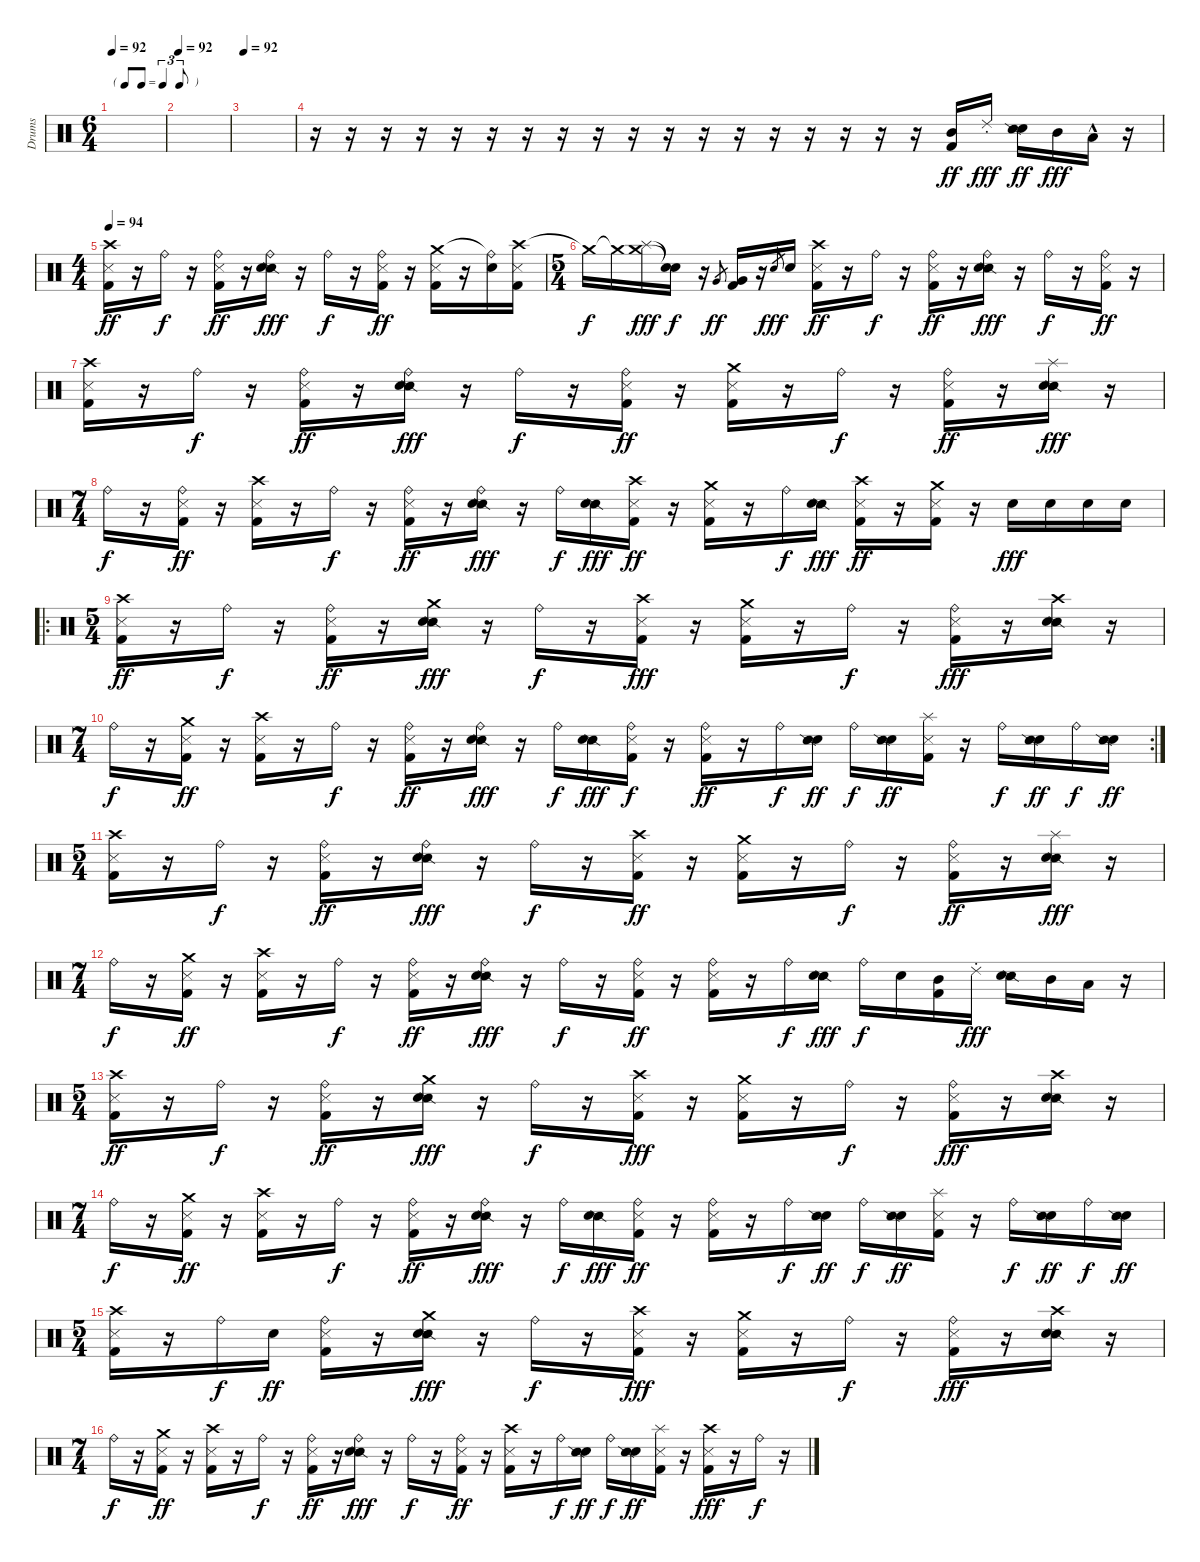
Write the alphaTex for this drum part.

\track ("Drums" "Drums") {instrument percussion}
\staff {score}
\articulation defaults
\ts (6 4)
\tf triplet8th
\tempo 92
\clef neutral
\ks c
|
\tempo 92
|
\tempo 92
|
r.16 r.16 r.16 r.16 r.16 r.16 r.16 r.16 r.16 r.16 r.16 r.16 r.16 r.16 r.16 r.16 r.16 r.16 ("Mid Tom (hit)" "Kick (hit) 2").16{dy ff} "Ride (choke) 2".16{dy fff} ("Electric Snare (hit)" "Snare (side stick) 2").16{dy ff} "Mid Tom (hit)".16{dy fff} "Low Tom (hit)"{hac}.16 r.16 |
\ts (4 4)
\tempo 94
("Crash high (hit)" "Metronome (hit)" "Kick (hit) 2").16{dy ff} r.16 "Ride (bell)".16{dy f} r.16 ("Ride (bell)" "Metronome (hit)" "Kick (hit) 2").16{dy ff} r.16 ("Ride (bell)" "Snare (side stick) 2" "Electric Snare (hit)").16{dy fff} r.16 "Ride (bell)".16{dy f} r.16 ("Ride (bell)" "Metronome (hit)" "Kick (hit) 2").16{dy ff} r.16 ("Crash medium (hit)" "Metronome (hit)" "Kick (hit) 2").16 r.16 ("Ride (bell)"{t} "Electric Snare (hit)").16 ("Crash high (hit)" "Metronome (hit)" "Kick (hit) 2").16 |
\ts (5 4)
"Crash medium (hit)"{t}.16{dy f} "Crash medium (hit)"{t}.16 ("Crash medium (hit)" "Splash (hit)").16{dy fff} ("Snare (hit)"{t} "Snare (hit)"{t}).16{dy f} r.16 "Very Low Tom (hit)".8{gr dy ff} ("Very Low Tom (hit)" "Kick (hit) 2").16 r.16 "Electric Snare (hit)".8{gr dy fff} "Electric Snare (hit)".16 ("Crash high (hit)" "Metronome (hit)" "Kick (hit) 2").16{dy ff} r.16 "Ride (bell)".16{dy f} r.16 ("Ride (bell)" "Metronome (hit)" "Kick (hit) 2").16{dy ff} r.16 ("Ride (bell)" "Snare (side stick) 2" "Electric Snare (hit)").16{dy fff} r.16 "Ride (bell)".16{dy f} r.16 ("Ride (bell)" "Metronome (hit)" "Kick (hit) 2").16{dy ff} r.16 |
("Crash high (hit)" "Metronome (hit)" "Kick (hit) 2").16 r.16 "Ride (bell)".16{dy f} r.16 ("Ride (bell)" "Metronome (hit)" "Kick (hit) 2").16{dy ff} r.16 ("Ride (bell)" "Snare (side stick) 2" "Electric Snare (hit)").16{dy fff} r.16 "Ride (bell)".16{dy f} r.16 ("Ride (bell)" "Metronome (hit)" "Kick (hit) 2").16{dy ff} r.16 ("Crash medium (hit)" "Metronome (hit)" "Kick (hit) 2").16 r.16 "Ride (bell)".16{dy f} r.16 ("Ride (bell)" "Metronome (hit)" "Kick (hit) 2").16{dy ff} r.16 ("Splash (hit)" "Snare (side stick) 2" "Electric Snare (hit)").16{dy fff} r.16 |
\ts (7 4)
"Ride (bell)".16{dy f} r.16 ("Ride (bell)" "Metronome (hit)" "Kick (hit) 2").16{dy ff} r.16 ("Crash high (hit)" "Metronome (hit)" "Kick (hit) 2").16 r.16 "Ride (bell)".16{dy f} r.16 ("Ride (bell)" "Metronome (hit)" "Kick (hit) 2").16{dy ff} r.16 ("Ride (bell)" "Snare (side stick) 2" "Electric Snare (hit)").16{dy fff} r.16 "Ride (bell)".16{dy f} ("Snare (side stick) 2" "Electric Snare (hit)").16{dy fff} ("Crash high (hit)" "Metronome (hit)" "Kick (hit) 2").16{dy ff} r.16 ("Crash medium (hit)" "Metronome (hit)" "Kick (hit) 2").16 r.16 "Ride (bell)".16{dy f} ("Snare (side stick) 2" "Electric Snare (hit)").16{dy fff} ("Crash high (hit)" "Metronome (hit)" "Kick (hit) 2").16{dy ff} r.16 ("Crash medium (hit)" "Metronome (hit)" "Kick (hit) 2").16 r.16 "Electric Snare (hit)".16{dy fff} "Electric Snare (hit)".16 "Electric Snare (hit)".16 "Electric Snare (hit)".16 |
\ro
\ts (5 4)
("Crash high (hit)" "Metronome (hit)" "Kick (hit) 2").16{dy ff} r.16 "Ride (bell)".16{dy f} r.16 ("Ride (bell)" "Metronome (hit)" "Kick (hit) 2").16{dy ff} r.16 ("Crash medium (hit)" "Snare (side stick) 2" "Electric Snare (hit)").16{dy fff} r.16 "Ride (bell)".16{dy f} r.16 ("Crash high (hit)" "Metronome (hit)" "Kick (hit) 2").16{dy fff} r.16 ("Crash medium (hit)" "Metronome (hit)" "Kick (hit) 2").16 r.16 "Ride (bell)".16{dy f} r.16 ("Ride (bell)" "Metronome (hit)" "Kick (hit) 2").16{dy fff} r.16 ("Crash high (hit)" "Snare (side stick) 2" "Electric Snare (hit)").16 r.16 |
\rc 2
\ts (7 4)
"Ride (bell)".16{dy f} r.16 ("Crash medium (hit)" "Metronome (hit)" "Kick (hit) 2").16{dy ff} r.16 ("Crash high (hit)" "Metronome (hit)" "Kick (hit) 2").16 r.16 "Ride (bell)".16{dy f} r.16 ("Ride (bell)" "Metronome (hit)" "Kick (hit) 2").16{dy ff} r.16 ("Ride (bell)" "Snare (side stick) 2" "Electric Snare (hit)").16{dy fff} r.16 "Ride (bell)".16{dy f} ("Snare (side stick) 2" "Electric Snare (hit)").16{dy fff} ("Ride (bell)" "Metronome (hit)" "Kick (hit) 2").16{dy f} r.16 ("Ride (bell)" "Metronome (hit)" "Kick (hit) 2").16{dy ff} r.16 "Ride (bell)".16{dy f} ("Electric Snare (hit)" "Snare (side stick) 2").16{dy ff} "Ride (bell)".16{dy f} ("Electric Snare (hit)" "Snare (side stick) 2").16{dy ff} ("Splash (hit)" "Metronome (hit)" "Kick (hit) 2").16 r.16 "Ride (bell)".16{dy f} ("Electric Snare (hit)" "Snare (side stick) 2").16{dy ff} "Ride (bell)".16{dy f} ("Electric Snare (hit)" "Snare (side stick) 2").16{dy ff} |
\ts (5 4)
("Crash high (hit)" "Metronome (hit)" "Kick (hit) 2").16 r.16 "Ride (bell)".16{dy f} r.16 ("Ride (bell)" "Metronome (hit)" "Kick (hit) 2").16{dy ff} r.16 ("Ride (bell)" "Snare (side stick) 2" "Electric Snare (hit)").16{dy fff} r.16 "Ride (bell)".16{dy f} r.16 ("Crash high (hit)" "Metronome (hit)" "Kick (hit) 2").16{dy ff} r.16 ("Crash medium (hit)" "Metronome (hit)" "Kick (hit) 2").16 r.16 "Ride (bell)".16{dy f} r.16 ("Ride (bell)" "Metronome (hit)" "Kick (hit) 2").16{dy ff} r.16 ("Splash (hit)" "Snare (side stick) 2" "Electric Snare (hit)").16{dy fff} r.16 |
\ts (7 4)
"Ride (bell)".16{dy f} r.16 ("Crash medium (hit)" "Metronome (hit)" "Kick (hit) 2").16{dy ff} r.16 ("Crash high (hit)" "Metronome (hit)" "Kick (hit) 2").16 r.16 "Ride (bell)".16{dy f} r.16 ("Ride (bell)" "Metronome (hit)" "Kick (hit) 2").16{dy ff} r.16 ("Ride (bell)" "Snare (side stick) 2" "Electric Snare (hit)").16{dy fff} r.16 "Ride (bell)".16{dy f} r.16 ("Ride (bell)" "Metronome (hit)" "Kick (hit) 2").16{dy ff} r.16 ("Ride (bell)" "Metronome (hit)" "Kick (hit) 2").16 r.16 "Ride (bell)".16{dy f} ("Snare (side stick) 2" "Electric Snare (hit)").16{dy fff} "Ride (bell)".16{dy f} "Electric Snare (hit)".16 ("Mid Tom (hit)" "Kick (hit) 2").16 "Ride (choke) 2".16{dy fff} ("Snare (side stick) 2" "Electric Snare (hit)").16 "Mid Tom (hit)".16 "Low Tom (hit)".16 r.16 |
\ts (5 4)
("Crash high (hit)" "Metronome (hit)" "Kick (hit) 2").16{dy ff} r.16 "Ride (bell)".16{dy f} r.16 ("Ride (bell)" "Metronome (hit)" "Kick (hit) 2").16{dy ff} r.16 ("Crash medium (hit)" "Snare (side stick) 2" "Electric Snare (hit)").16{dy fff} r.16 "Ride (bell)".16{dy f} r.16 ("Crash high (hit)" "Metronome (hit)" "Kick (hit) 2").16{dy fff} r.16 ("Crash medium (hit)" "Metronome (hit)" "Kick (hit) 2").16 r.16 "Ride (bell)".16{dy f} r.16 ("Ride (bell)" "Metronome (hit)" "Kick (hit) 2").16{dy fff} r.16 ("Crash high (hit)" "Snare (side stick) 2" "Electric Snare (hit)").16 r.16 |
\ts (7 4)
"Ride (bell)".16{dy f} r.16 ("Crash medium (hit)" "Metronome (hit)" "Kick (hit) 2").16{dy ff} r.16 ("Crash high (hit)" "Metronome (hit)" "Kick (hit) 2").16 r.16 "Ride (bell)".16{dy f} r.16 ("Ride (bell)" "Metronome (hit)" "Kick (hit) 2").16{dy ff} r.16 ("Ride (bell)" "Snare (side stick) 2" "Electric Snare (hit)").16{dy fff} r.16 "Ride (bell)".16{dy f} ("Snare (side stick) 2" "Electric Snare (hit)").16{dy fff} ("Ride (bell)" "Metronome (hit)" "Kick (hit) 2").16{dy ff} r.16 ("Ride (bell)" "Metronome (hit)" "Kick (hit) 2").16 r.16 "Ride (bell)".16{dy f} ("Electric Snare (hit)" "Snare (side stick) 2").16{dy ff} "Ride (bell)".16{dy f} ("Electric Snare (hit)" "Snare (side stick) 2").16{dy ff} ("Splash (hit)" "Metronome (hit)" "Kick (hit) 2").16 r.16 "Ride (bell)".16{dy f} ("Electric Snare (hit)" "Snare (side stick) 2").16{dy ff} "Ride (bell)".16{dy f} ("Electric Snare (hit)" "Snare (side stick) 2").16{dy ff} |
\ts (5 4)
("Crash high (hit)" "Metronome (hit)" "Kick (hit) 2").16 r.16 "Ride (bell)".16{dy f} "Electric Snare (hit)".16{dy ff} ("Ride (bell)" "Metronome (hit)" "Kick (hit) 2").16 r.16 ("Crash medium (hit)" "Snare (side stick) 2" "Electric Snare (hit)").16{dy fff} r.16 "Ride (bell)".16{dy f} r.16 ("Crash high (hit)" "Metronome (hit)" "Kick (hit) 2").16{dy fff} r.16 ("Crash medium (hit)" "Metronome (hit)" "Kick (hit) 2").16 r.16 "Ride (bell)".16{dy f} r.16 ("Ride (bell)" "Metronome (hit)" "Kick (hit) 2").16{dy fff} r.16 ("Crash high (hit)" "Snare (side stick) 2" "Electric Snare (hit)").16 r.16 |
\ts (7 4)
"Ride (bell)".16{dy f} r.16 ("Crash medium (hit)" "Metronome (hit)" "Kick (hit) 2").16{dy ff} r.16 ("Crash high (hit)" "Metronome (hit)" "Kick (hit) 2").16 r.16 "Ride (bell)".16{dy f} r.16 ("Ride (bell)" "Metronome (hit)" "Kick (hit) 2").16{dy ff} r.16 ("Ride (bell)" "Snare (side stick) 2" "Electric Snare (hit)").16{dy fff} r.16 "Ride (bell)".16{dy f} r.16 ("Ride (bell)" "Metronome (hit)" "Kick (hit) 2").16{dy ff} r.16 ("Crash high (hit)" "Metronome (hit)" "Kick (hit) 2").16 r.16 "Ride (bell)".16{dy f} ("Electric Snare (hit)" "Snare (side stick) 2").16{dy ff} "Ride (bell)".16{dy f} ("Electric Snare (hit)" "Snare (side stick) 2").16{dy ff} ("Splash (hit)" "Metronome (hit)" "Kick (hit) 2").16 r.16 ("Crash high (hit)" "Metronome (hit)" "Kick (hit) 2").16{dy fff} r.16 "Ride (bell)".16{dy f} r.16
